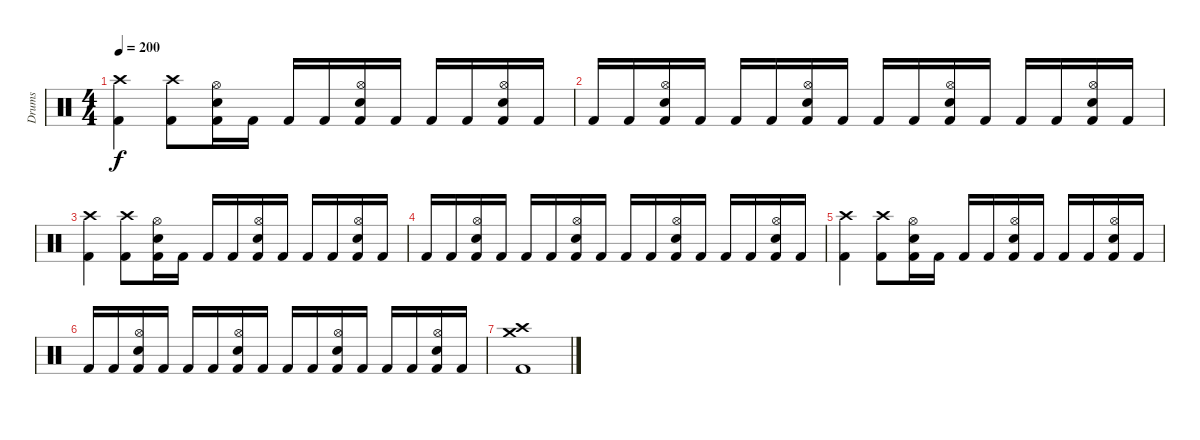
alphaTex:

\track ("Drums" "Drums") {instrument percussion}
\staff {score}
\articulation defaults
\ts (4 4)
\tempo 200
\clef neutral
\ks c
("Crash high (hit)" "Kick (hit) 2").4{dy f} ("Crash high (hit)" "Kick (hit) 2").8 ("Hi-Hat (open)" "Snare (hit) 2" "Kick (hit) 2").16 "Kick (hit) 2".16 "Kick (hit) 2".16 "Kick (hit) 2".16 ("Hi-Hat (open)" "Snare (hit) 2" "Kick (hit) 2").16 "Kick (hit) 2".16 "Kick (hit) 2".16 "Kick (hit) 2".16 ("Hi-Hat (open)" "Snare (hit) 2" "Kick (hit) 2").16 "Kick (hit) 2".16 |
"Kick (hit) 2".16 "Kick (hit) 2".16 ("Hi-Hat (open)" "Snare (hit) 2" "Kick (hit) 2").16 "Kick (hit) 2".16 "Kick (hit) 2".16 "Kick (hit) 2".16 ("Hi-Hat (open)" "Snare (hit) 2" "Kick (hit) 2").16 "Kick (hit) 2".16 "Kick (hit) 2".16 "Kick (hit) 2".16 ("Hi-Hat (open)" "Snare (hit) 2" "Kick (hit) 2").16 "Kick (hit) 2".16 "Kick (hit) 2".16 "Kick (hit) 2".16 ("Hi-Hat (open)" "Snare (hit) 2" "Kick (hit) 2").16 "Kick (hit) 2".16 |
("Crash high (hit)" "Kick (hit) 2").4 ("Crash high (hit)" "Kick (hit) 2").8 ("Hi-Hat (open)" "Snare (hit) 2" "Kick (hit) 2").16 "Kick (hit) 2".16 "Kick (hit) 2".16 "Kick (hit) 2".16 ("Hi-Hat (open)" "Snare (hit) 2" "Kick (hit) 2").16 "Kick (hit) 2".16 "Kick (hit) 2".16 "Kick (hit) 2".16 ("Hi-Hat (open)" "Snare (hit) 2" "Kick (hit) 2").16 "Kick (hit) 2".16 |
"Kick (hit) 2".16 "Kick (hit) 2".16 ("Hi-Hat (open)" "Snare (hit) 2" "Kick (hit) 2").16 "Kick (hit) 2".16 "Kick (hit) 2".16 "Kick (hit) 2".16 ("Hi-Hat (open)" "Snare (hit) 2" "Kick (hit) 2").16 "Kick (hit) 2".16 "Kick (hit) 2".16 "Kick (hit) 2".16 ("Hi-Hat (open)" "Snare (hit) 2" "Kick (hit) 2").16 "Kick (hit) 2".16 "Kick (hit) 2".16 "Kick (hit) 2".16 ("Hi-Hat (open)" "Snare (hit) 2" "Kick (hit) 2").16 "Kick (hit) 2".16 |
("Crash high (hit)" "Kick (hit) 2").4 ("Crash high (hit)" "Kick (hit) 2").8 ("Hi-Hat (open)" "Snare (hit) 2" "Kick (hit) 2").16 "Kick (hit) 2".16 "Kick (hit) 2".16 "Kick (hit) 2".16 ("Hi-Hat (open)" "Snare (hit) 2" "Kick (hit) 2").16 "Kick (hit) 2".16 "Kick (hit) 2".16 "Kick (hit) 2".16 ("Hi-Hat (open)" "Snare (hit) 2" "Kick (hit) 2").16 "Kick (hit) 2".16 |
"Kick (hit) 2".16 "Kick (hit) 2".16 ("Hi-Hat (open)" "Snare (hit) 2" "Kick (hit) 2").16 "Kick (hit) 2".16 "Kick (hit) 2".16 "Kick (hit) 2".16 ("Hi-Hat (open)" "Snare (hit) 2" "Kick (hit) 2").16 "Kick (hit) 2".16 "Kick (hit) 2".16 "Kick (hit) 2".16 ("Hi-Hat (open)" "Snare (hit) 2" "Kick (hit) 2").16 "Kick (hit) 2".16 "Kick (hit) 2".16 "Kick (hit) 2".16 ("Hi-Hat (open)" "Snare (hit) 2" "Kick (hit) 2").16 "Kick (hit) 2".16 |
("Crash medium (hit)" "Crash high (hit)" "Kick (hit) 2").1
